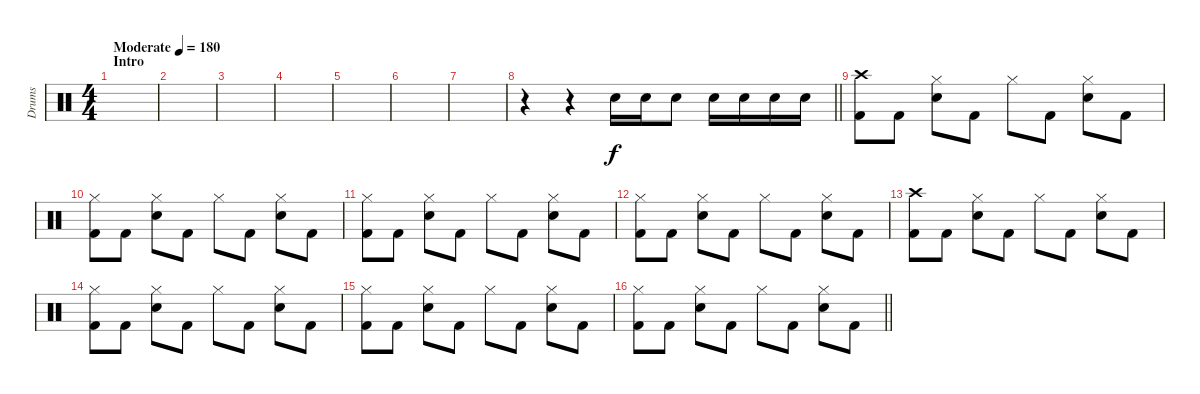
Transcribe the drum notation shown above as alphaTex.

\track ("Drums" "Drums") {instrument percussion}
\staff {score}
\articulation defaults
\ts (4 4)
\section ("" "Intro")
\tempo (180 "Moderate")
\clef neutral
\ks c
|
|
|
|
|
|
|
\barLineRight lightlight
r.4 r.4 "Snare (hit) 2".16 "Snare (hit) 2".16 "Snare (hit) 2".8 "Snare (hit) 2".16 "Snare (hit) 2".16 "Snare (hit) 2".16 "Snare (hit) 2".16 |
("Crash high (hit)" "Kick (hit) 2").8 "Kick (hit) 2".8 ("Hi-Hat (closed)" "Snare (hit) 2").8 "Kick (hit) 2".8 "Hi-Hat (closed)".8 "Kick (hit) 2".8 ("Hi-Hat (closed)" "Snare (hit) 2").8 "Kick (hit) 2".8 |
("Hi-Hat (closed)" "Kick (hit) 2").8 "Kick (hit) 2".8 ("Hi-Hat (closed)" "Snare (hit) 2").8 "Kick (hit) 2".8 "Hi-Hat (closed)".8 "Kick (hit) 2".8 ("Hi-Hat (closed)" "Snare (hit) 2").8 "Kick (hit) 2".8 |
("Hi-Hat (closed)" "Kick (hit) 2").8 "Kick (hit) 2".8 ("Hi-Hat (closed)" "Snare (hit) 2").8 "Kick (hit) 2".8 "Hi-Hat (closed)".8 "Kick (hit) 2".8 ("Hi-Hat (closed)" "Snare (hit) 2").8 "Kick (hit) 2".8 |
("Hi-Hat (closed)" "Kick (hit) 2").8 "Kick (hit) 2".8 ("Hi-Hat (closed)" "Snare (hit) 2").8 "Kick (hit) 2".8 "Hi-Hat (closed)".8 "Kick (hit) 2".8 ("Hi-Hat (closed)" "Snare (hit) 2").8 "Kick (hit) 2".8 |
("Crash high (hit)" "Kick (hit) 2").8 "Kick (hit) 2".8 ("Hi-Hat (closed)" "Snare (hit) 2").8 "Kick (hit) 2".8 "Hi-Hat (closed)".8 "Kick (hit) 2".8 ("Hi-Hat (closed)" "Snare (hit) 2").8 "Kick (hit) 2".8 |
("Hi-Hat (closed)" "Kick (hit) 2").8 "Kick (hit) 2".8 ("Hi-Hat (closed)" "Snare (hit) 2").8 "Kick (hit) 2".8 "Hi-Hat (closed)".8 "Kick (hit) 2".8 ("Hi-Hat (closed)" "Snare (hit) 2").8 "Kick (hit) 2".8 |
("Hi-Hat (closed)" "Kick (hit) 2").8 "Kick (hit) 2".8 ("Hi-Hat (closed)" "Snare (hit) 2").8 "Kick (hit) 2".8 "Hi-Hat (closed)".8 "Kick (hit) 2".8 ("Hi-Hat (closed)" "Snare (hit) 2").8 "Kick (hit) 2".8 |
\barLineRight lightlight
("Hi-Hat (closed)" "Kick (hit) 2").8 "Kick (hit) 2".8 ("Hi-Hat (closed)" "Snare (hit) 2").8 "Kick (hit) 2".8 "Hi-Hat (closed)".8 "Kick (hit) 2".8 ("Hi-Hat (closed)" "Snare (hit) 2").8 "Kick (hit) 2".8
